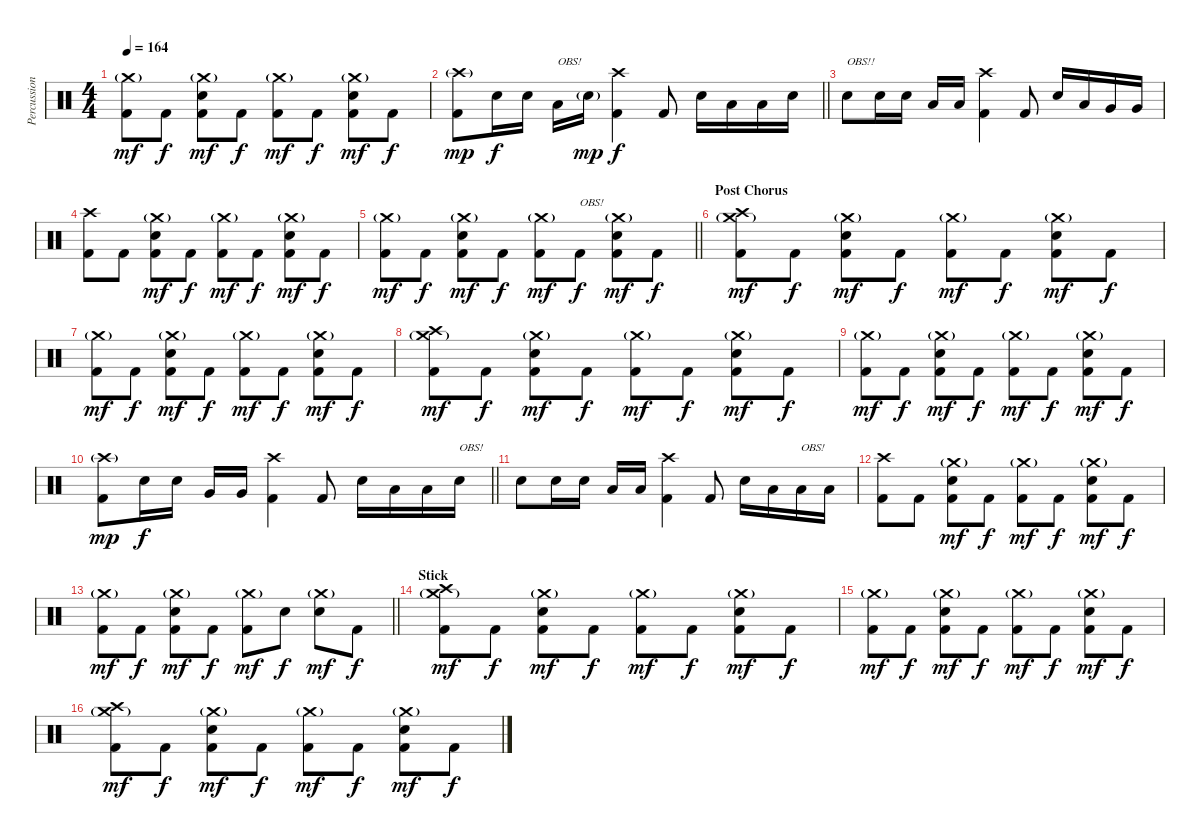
\track ("Percussion - Michael Ambrose" "Percussion") {instrument percussion}
\staff {score}
\articulation defaults
\ts (4 4)
\tempo 164
\clef neutral
\ks c
("Crash medium (hit)"{g} "Kick (hit) 2").8{dy mf} "Kick (hit) 2".8{dy f} ("Crash medium (hit)"{g} "Electric Snare (hit)" "Kick (hit) 2").8{dy mf} "Kick (hit) 2".8{dy f} ("Crash medium (hit)"{g} "Kick (hit) 2").8{dy mf} "Kick (hit) 2".8{dy f} ("Crash medium (hit)"{g} "Electric Snare (hit)" "Kick (hit) 2").8{dy mf} "Kick (hit) 2".8{dy f} |
\barLineRight lightlight
("Crash high (hit)"{g} "Kick (hit) 2").8{dy mp} "Electric Snare (hit)".16{dy f} "Electric Snare (hit)".16 "Low Tom (hit)".16{txt "OBS!"} "Electric Snare (hit)"{g}.16{dy mp} ("Crash high (hit)" "Kick (hit) 2").4{dy f} "Kick (hit) 2".8 "Electric Snare (hit)".16 "Low Tom (hit)".16 "Low Tom (hit)".16 "Electric Snare (hit)".16 |
"Electric Snare (hit)".8{txt "OBS!!"} "Electric Snare (hit)".16 "Electric Snare (hit)".16 "Low Tom (hit)".16 "Low Tom (hit)".16 ("Crash high (hit)" "Kick (hit) 2").4 "Kick (hit) 2".8 "Electric Snare (hit)".16 "Low Tom (hit)".16 "Very Low Tom (hit)".16 "Very Low Tom (hit)".16 |
("Crash high (hit)" "Kick (hit) 2").8 "Kick (hit) 2".8 ("Crash medium (hit)"{g} "Electric Snare (hit)" "Kick (hit) 2").8{dy mf} "Kick (hit) 2".8{dy f} ("Crash medium (hit)"{g} "Kick (hit) 2").8{dy mf} "Kick (hit) 2".8{dy f} ("Crash medium (hit)"{g} "Electric Snare (hit)" "Kick (hit) 2").8{dy mf} "Kick (hit) 2".8{dy f} |
\barLineRight lightlight
("Crash medium (hit)"{g} "Kick (hit) 2").8{dy mf} "Kick (hit) 2".8{dy f} ("Crash medium (hit)"{g} "Electric Snare (hit)" "Kick (hit) 2").8{dy mf} "Kick (hit) 2".8{dy f} ("Crash medium (hit)"{g} "Kick (hit) 2").8{dy mf} "Kick (hit) 2".8{txt "OBS!" dy f} ("Crash medium (hit)"{g} "Electric Snare (hit)" "Kick (hit) 2").8{dy mf} "Kick (hit) 2".8{dy f} |
\section ("" "Post Chorus")
("Crash high (hit)" "Crash medium (hit)"{g} "Kick (hit) 2").8{dy mf} "Kick (hit) 2".8{dy f} ("Crash medium (hit)"{g} "Electric Snare (hit)" "Kick (hit) 2").8{dy mf} "Kick (hit) 2".8{dy f} ("Crash medium (hit)"{g} "Kick (hit) 2").8{dy mf} "Kick (hit) 2".8{dy f} ("Crash medium (hit)"{g} "Electric Snare (hit)" "Kick (hit) 2").8{dy mf} "Kick (hit) 2".8{dy f} |
("Crash medium (hit)"{g} "Kick (hit) 2").8{dy mf} "Kick (hit) 2".8{dy f} ("Crash medium (hit)"{g} "Electric Snare (hit)" "Kick (hit) 2").8{dy mf} "Kick (hit) 2".8{dy f} ("Crash medium (hit)"{g} "Kick (hit) 2").8{dy mf} "Kick (hit) 2".8{dy f} ("Crash medium (hit)"{g} "Electric Snare (hit)" "Kick (hit) 2").8{dy mf} "Kick (hit) 2".8{dy f} |
("Crash high (hit)" "Crash medium (hit)"{g} "Kick (hit) 2").8{dy mf} "Kick (hit) 2".8{dy f} ("Crash medium (hit)"{g} "Electric Snare (hit)" "Kick (hit) 2").8{dy mf} "Kick (hit) 2".8{dy f} ("Crash medium (hit)"{g} "Kick (hit) 2").8{dy mf} "Kick (hit) 2".8{dy f} ("Crash medium (hit)"{g} "Electric Snare (hit)" "Kick (hit) 2").8{dy mf} "Kick (hit) 2".8{dy f} |
("Crash medium (hit)"{g} "Kick (hit) 2").8{dy mf} "Kick (hit) 2".8{dy f} ("Crash medium (hit)"{g} "Electric Snare (hit)" "Kick (hit) 2").8{dy mf} "Kick (hit) 2".8{dy f} ("Crash medium (hit)"{g} "Kick (hit) 2").8{dy mf} "Kick (hit) 2".8{dy f} ("Crash medium (hit)"{g} "Electric Snare (hit)" "Kick (hit) 2").8{dy mf} "Kick (hit) 2".8{dy f} |
\barLineRight lightlight
("Crash high (hit)"{g} "Kick (hit) 2").8{dy mp} "Electric Snare (hit)".16{dy f} "Electric Snare (hit)".16 "Very Low Tom (hit)".16 "Very Low Tom (hit)".16 ("Crash high (hit)" "Kick (hit) 2").4 "Kick (hit) 2".8 "Electric Snare (hit)".16 "Low Tom (hit)".16 "Low Tom (hit)".16 "Electric Snare (hit)".16{txt "OBS!"} |
"Electric Snare (hit)".8 "Electric Snare (hit)".16 "Electric Snare (hit)".16 "Low Tom (hit)".16 "Low Tom (hit)".16 ("Crash high (hit)" "Kick (hit) 2").4 "Kick (hit) 2".8 "Electric Snare (hit)".16 "Low Tom (hit)".16 "Low Floor Tom (hit)".16{txt "OBS!"} "Low Floor Tom (hit)".16 |
("Crash high (hit)" "Kick (hit) 2").8 "Kick (hit) 2".8 ("Crash medium (hit)"{g} "Electric Snare (hit)" "Kick (hit) 2").8{dy mf} "Kick (hit) 2".8{dy f} ("Crash medium (hit)"{g} "Kick (hit) 2").8{dy mf} "Kick (hit) 2".8{dy f} ("Crash medium (hit)"{g} "Electric Snare (hit)" "Kick (hit) 2").8{dy mf} "Kick (hit) 2".8{dy f} |
\barLineRight lightlight
("Crash medium (hit)"{g} "Kick (hit) 2").8{dy mf} "Kick (hit) 2".8{dy f} ("Crash medium (hit)"{g} "Electric Snare (hit)" "Kick (hit) 2").8{dy mf} "Kick (hit) 2".8{dy f} ("Crash medium (hit)"{g} "Kick (hit) 2").8{dy mf} "Electric Snare (hit)".8{dy f} ("Crash medium (hit)"{g} "Electric Snare (hit)").8{dy mf} "Kick (hit) 2".8{dy f} |
\section ("" "Stick")
("Crash high (hit)" "Crash medium (hit)"{g} "Kick (hit) 2").8{dy mf} "Kick (hit) 2".8{dy f} ("Crash medium (hit)"{g} "Electric Snare (hit)" "Kick (hit) 2").8{dy mf} "Kick (hit) 2".8{dy f} ("Crash medium (hit)"{g} "Kick (hit) 2").8{dy mf} "Kick (hit) 2".8{dy f} ("Crash medium (hit)"{g} "Electric Snare (hit)" "Kick (hit) 2").8{dy mf} "Kick (hit) 2".8{dy f} |
("Crash medium (hit)"{g} "Kick (hit) 2").8{dy mf} "Kick (hit) 2".8{dy f} ("Crash medium (hit)"{g} "Electric Snare (hit)" "Kick (hit) 2").8{dy mf} "Kick (hit) 2".8{dy f} ("Crash medium (hit)"{g} "Kick (hit) 2").8{dy mf} "Kick (hit) 2".8{dy f} ("Crash medium (hit)"{g} "Electric Snare (hit)" "Kick (hit) 2").8{dy mf} "Kick (hit) 2".8{dy f} |
("Crash high (hit)" "Crash medium (hit)"{g} "Kick (hit) 2").8{dy mf} "Kick (hit) 2".8{dy f} ("Crash medium (hit)"{g} "Electric Snare (hit)" "Kick (hit) 2").8{dy mf} "Kick (hit) 2".8{dy f} ("Crash medium (hit)"{g} "Kick (hit) 2").8{dy mf} "Kick (hit) 2".8{dy f} ("Crash medium (hit)"{g} "Electric Snare (hit)" "Kick (hit) 2").8{dy mf} "Kick (hit) 2".8{dy f}
